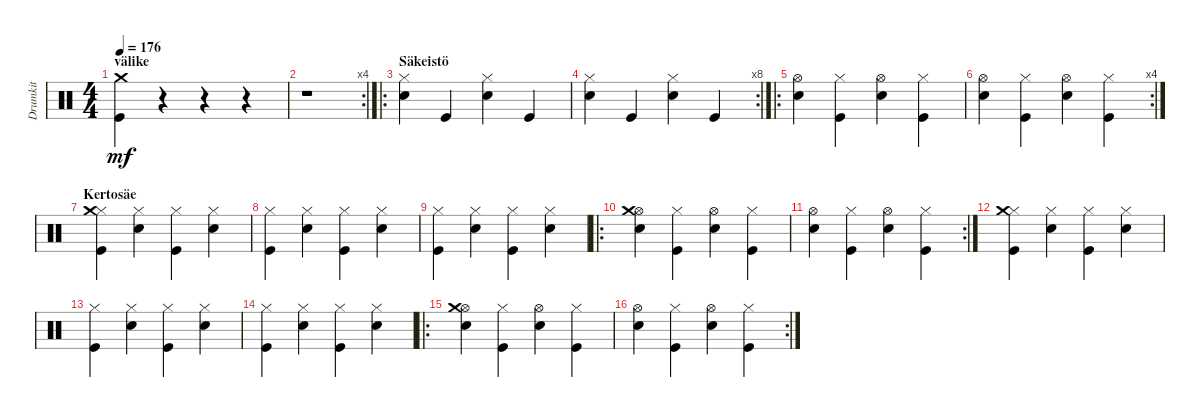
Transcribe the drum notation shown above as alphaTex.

\track ("Drumkit" "Drumkit") {instrument percussion}
\staff {score}
\articulation defaults
\ts (4 4)
\section ("" "välike")
\tempo 176
\clef neutral
\ks c
("Kick (hit)" "Crash medium (hit)").4{dy mf} r.4 r.4 r.4 |
\rc 4
r.1 |
\ro
\section ("" "Säkeistö")
("Snare (hit) 2" "Hi-Hat (closed)").4 "Kick (hit)".4 ("Hi-Hat (closed)" "Snare (hit) 2").4 "Kick (hit)".4 |
\rc 8
("Snare (hit) 2" "Hi-Hat (closed)").4 "Kick (hit)".4 ("Hi-Hat (closed)" "Snare (hit) 2").4 "Kick (hit)".4 |
\ro
("Snare (hit) 2" "Hi-Hat (open)").4 ("Kick (hit)" "Hi-Hat (closed)").4 ("Hi-Hat (open)" "Snare (hit) 2").4 ("Kick (hit)" "Hi-Hat (closed)").4 |
\rc 4
("Snare (hit) 2" "Hi-Hat (open)").4 ("Kick (hit)" "Hi-Hat (closed)").4 ("Hi-Hat (open)" "Snare (hit) 2").4 ("Kick (hit)" "Hi-Hat (closed)").4 |
\section ("" "Kertosäe")
("Hi-Hat (closed)" "Kick (hit)" "Crash medium (hit)").4 ("Hi-Hat (closed)" "Snare (hit) 2").4 ("Hi-Hat (closed)" "Kick (hit)").4 ("Hi-Hat (closed)" "Snare (hit) 2").4 |
("Hi-Hat (closed)" "Kick (hit)").4 ("Hi-Hat (closed)" "Snare (hit) 2").4 ("Hi-Hat (closed)" "Kick (hit)").4 ("Hi-Hat (closed)" "Snare (hit) 2").4 |
("Hi-Hat (closed)" "Kick (hit)").4 ("Hi-Hat (closed)" "Snare (hit) 2").4 ("Hi-Hat (closed)" "Kick (hit)").4 ("Hi-Hat (closed)" "Snare (hit) 2").4 |
\ro
("Snare (hit) 2" "Hi-Hat (open)" "Crash medium (hit)").4 ("Kick (hit)" "Hi-Hat (closed)").4 ("Hi-Hat (open)" "Snare (hit) 2").4 ("Kick (hit)" "Hi-Hat (closed)").4 |
\rc 2
("Snare (hit) 2" "Hi-Hat (open)").4 ("Kick (hit)" "Hi-Hat (closed)").4 ("Hi-Hat (open)" "Snare (hit) 2").4 ("Kick (hit)" "Hi-Hat (closed)").4 |
("Hi-Hat (closed)" "Kick (hit)" "Crash medium (hit)").4 ("Hi-Hat (closed)" "Snare (hit) 2").4 ("Hi-Hat (closed)" "Kick (hit)").4 ("Hi-Hat (closed)" "Snare (hit) 2").4 |
("Hi-Hat (closed)" "Kick (hit)").4 ("Hi-Hat (closed)" "Snare (hit) 2").4 ("Hi-Hat (closed)" "Kick (hit)").4 ("Hi-Hat (closed)" "Snare (hit) 2").4 |
("Hi-Hat (closed)" "Kick (hit)").4 ("Hi-Hat (closed)" "Snare (hit) 2").4 ("Hi-Hat (closed)" "Kick (hit)").4 ("Hi-Hat (closed)" "Snare (hit) 2").4 |
\ro
("Snare (hit) 2" "Hi-Hat (open)" "Crash medium (hit)").4 ("Kick (hit)" "Hi-Hat (closed)").4 ("Hi-Hat (open)" "Snare (hit) 2").4 ("Kick (hit)" "Hi-Hat (closed)").4 |
\rc 2
("Snare (hit) 2" "Hi-Hat (open)").4 ("Kick (hit)" "Hi-Hat (closed)").4 ("Hi-Hat (open)" "Snare (hit) 2").4 ("Kick (hit)" "Hi-Hat (closed)").4
